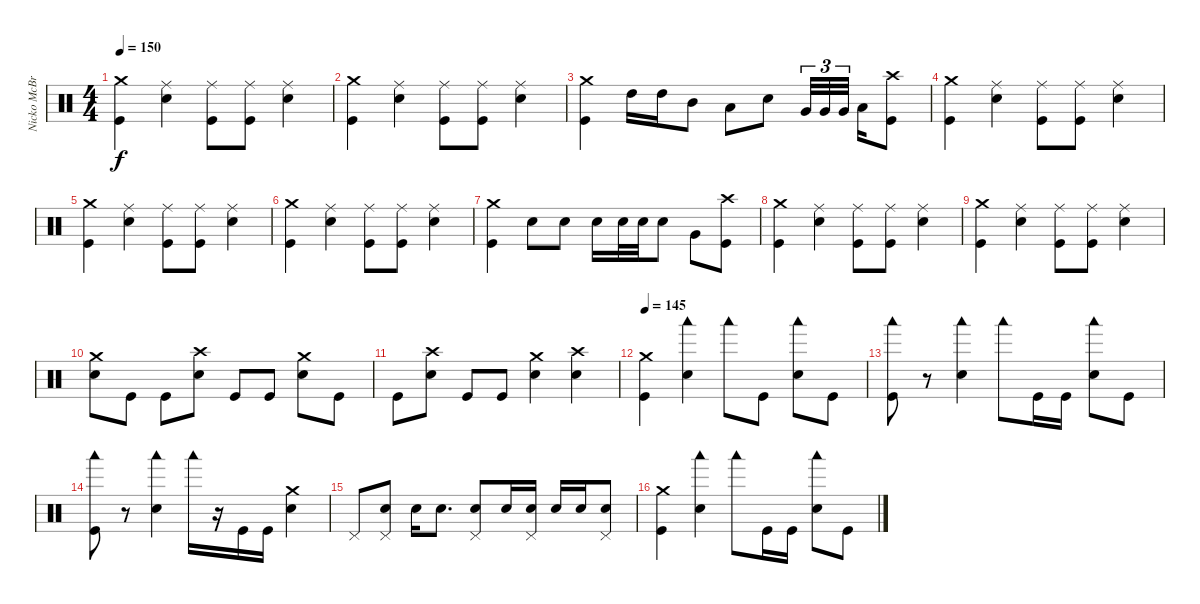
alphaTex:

\track ("Nicko McBrain" "Nicko McBr") {instrument percussion}
\staff {score}
\articulation defaults
\ts (4 4)
\tempo 150
\clef neutral
\ks c
("Kick (hit)" "Crash medium (hit)").4{dy f} ("Electric Snare (hit)" "Ride (middle)").4 ("Kick (hit)" "Ride (middle)").8 ("Kick (hit)" "Ride (middle)").8 ("Electric Snare (hit)" "Ride (middle)").4 |
("Kick (hit)" "Crash medium (hit)").4 ("Electric Snare (hit)" "Ride (middle)").4 ("Kick (hit)" "Ride (middle)").8 ("Kick (hit)" "Ride (middle)").8 ("Electric Snare (hit)" "Ride (middle)").4 |
("Kick (hit)" "Crash medium (hit)").4 "High Tom (hit)".16 "High Tom (hit)".16 "Mid Tom (hit)".8 "Low Tom (hit)".8 "Electric Snare (hit)".8 "Very Low Tom (hit)".32{tu (3 2)} "Very Low Tom (hit)".32{tu (3 2)} "Very Low Tom (hit)".32{tu (3 2) beam splitsecondary} "Low Floor Tom (hit)".16 ("Kick (hit)" "Crash high (hit)").8 |
("Kick (hit)" "Crash medium (hit)").4 ("Electric Snare (hit)" "Ride (middle)").4 ("Kick (hit)" "Ride (middle)").8 ("Kick (hit)" "Ride (middle)").8 ("Electric Snare (hit)" "Ride (middle)").4 |
("Kick (hit)" "Crash medium (hit)").4 ("Electric Snare (hit)" "Ride (middle)").4 ("Kick (hit)" "Ride (middle)").8 ("Kick (hit)" "Ride (middle)").8 ("Electric Snare (hit)" "Ride (middle)").4 |
("Kick (hit)" "Crash medium (hit)").4 ("Electric Snare (hit)" "Ride (middle)").4 ("Kick (hit)" "Ride (middle)").8 ("Kick (hit)" "Ride (middle)").8 ("Electric Snare (hit)" "Ride (middle)").4 |
("Kick (hit)" "Crash medium (hit)").4 "Electric Snare (hit)".8 "Electric Snare (hit)".8 "Electric Snare (hit)".16 "Electric Snare (hit)".32 "Electric Snare (hit)".32 "Electric Snare (hit)".8 "Very Low Tom (hit)".8 ("Kick (hit)" "Crash high (hit)").8 |
("Kick (hit)" "Crash medium (hit)").4 ("Electric Snare (hit)" "Ride (middle)").4 ("Kick (hit)" "Ride (middle)").8 ("Kick (hit)" "Ride (middle)").8 ("Electric Snare (hit)" "Ride (middle)").4 |
("Kick (hit)" "Crash medium (hit)").4 ("Electric Snare (hit)" "Ride (middle)").4 ("Kick (hit)" "Ride (middle)").8 ("Kick (hit)" "Ride (middle)").8 ("Electric Snare (hit)" "Ride (middle)").4 |
("Electric Snare (hit)" "Crash medium (hit)").8 "Kick (hit)".8 "Kick (hit)".8 ("Electric Snare (hit)" "Crash high (hit)").8 "Kick (hit)".8 "Kick (hit)".8 ("Electric Snare (hit)" "Crash medium (hit)").8 "Kick (hit)".8 |
"Kick (hit)".8 ("Electric Snare (hit)" "Crash high (hit)").8 "Kick (hit)".8 "Kick (hit)".8 ("Electric Snare (hit)" "Crash medium (hit)").4 ("Electric Snare (hit)" "Crash high (hit)").4 |
\tempo 145
("Crash medium (hit)" "Kick (hit)").4 ("Woodblock low (hit)" "Electric Snare (hit)").4 "Woodblock low (hit)".8 "Kick (hit)".8 ("Woodblock low (hit)" "Electric Snare (hit)").8 "Kick (hit)".8 |
("Woodblock low (hit)" "Kick (hit)").8 r.8 ("Woodblock low (hit)" "Electric Snare (hit)").4 "Woodblock low (hit)".8 "Kick (hit)".16 "Kick (hit)".16 ("Woodblock low (hit)" "Electric Snare (hit)").8 "Kick (hit)".8 |
("Woodblock low (hit)" "Kick (hit)").8 r.8 ("Woodblock low (hit)" "Electric Snare (hit)").4 "Woodblock low (hit)".16 r.16 "Kick (hit)".16 "Kick (hit)".16 ("Crash medium (hit)" "Electric Snare (hit)").4 |
"Pedal Hi-Hat (hit)".8 ("Pedal Hi-Hat (hit)" "Electric Snare (hit)").8 "Electric Snare (hit)".16 "Electric Snare (hit)".8{d} ("Pedal Hi-Hat (hit)" "Electric Snare (hit)").8 "Electric Snare (hit)".16 ("Pedal Hi-Hat (hit)" "Electric Snare (hit)").16 "Electric Snare (hit)".16 "Electric Snare (hit)".16 ("Pedal Hi-Hat (hit)" "Electric Snare (hit)").8 |
("Crash medium (hit)" "Kick (hit)").4 ("Woodblock low (hit)" "Electric Snare (hit)").4 "Woodblock low (hit)".8 "Kick (hit)".16 "Kick (hit)".16 ("Woodblock low (hit)" "Electric Snare (hit)").8 "Kick (hit)".8
